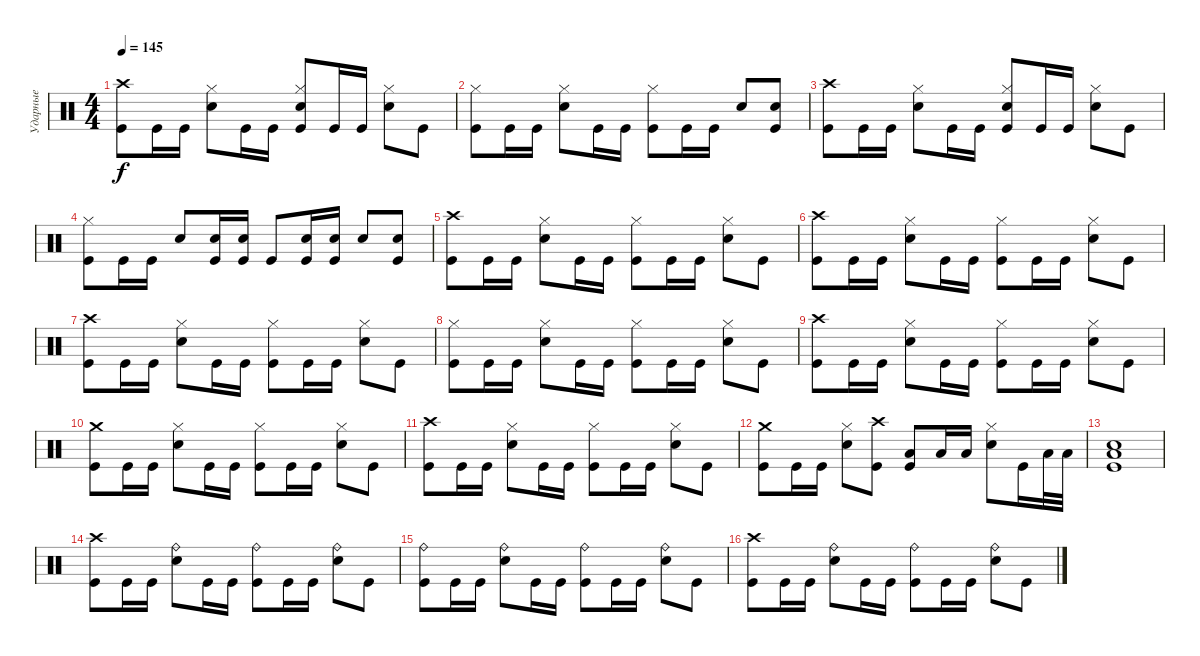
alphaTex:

\track ("Ударные" "Ударные") {instrument percussion}
\staff {score}
\articulation defaults
\ts (4 4)
\tempo 145
\clef neutral
\ks c
("Crash high (hit)" "Kick (hit)").8{dy f} "Kick (hit)".16 "Kick (hit)".16 ("Hi-Hat (closed)" "Electric Snare (hit)").8 "Kick (hit)".16 "Kick (hit)".16 ("Hi-Hat (closed)" "Electric Snare (hit)" "Kick (hit)").8 "Kick (hit)".16 "Kick (hit)".16 ("Hi-Hat (closed)" "Electric Snare (hit)").8 "Kick (hit)".8 |
("Hi-Hat (closed)" "Kick (hit)").8 "Kick (hit)".16 "Kick (hit)".16 ("Hi-Hat (closed)" "Electric Snare (hit)").8 "Kick (hit)".16 "Kick (hit)".16 ("Hi-Hat (closed)" "Kick (hit)").8 "Kick (hit)".16 "Kick (hit)".16 "Electric Snare (hit)".8 ("Electric Snare (hit)" "Kick (hit)").8 |
("Crash high (hit)" "Kick (hit)").8 "Kick (hit)".16 "Kick (hit)".16 ("Hi-Hat (closed)" "Electric Snare (hit)").8 "Kick (hit)".16 "Kick (hit)".16 ("Hi-Hat (closed)" "Electric Snare (hit)" "Kick (hit)").8 "Kick (hit)".16 "Kick (hit)".16 ("Hi-Hat (closed)" "Electric Snare (hit)").8 "Kick (hit)".8 |
("Hi-Hat (closed)" "Kick (hit)").8 "Kick (hit)".16 "Kick (hit)".16 "Electric Snare (hit)".8 ("Electric Snare (hit)" "Kick (hit)").16 ("Electric Snare (hit)" "Kick (hit)").16 "Kick (hit)".8 ("Electric Snare (hit)" "Kick (hit)").16 ("Electric Snare (hit)" "Kick (hit)").16 "Electric Snare (hit)".8 ("Electric Snare (hit)" "Kick (hit)").8 |
("Crash high (hit)" "Kick (hit)").8 "Kick (hit)".16 "Kick (hit)".16 ("Hi-Hat (closed)" "Electric Snare (hit)").8 "Kick (hit)".16 "Kick (hit)".16 ("Hi-Hat (closed)" "Kick (hit)").8 "Kick (hit)".16 "Kick (hit)".16 ("Hi-Hat (closed)" "Electric Snare (hit)").8 "Kick (hit)".8 |
("Crash high (hit)" "Kick (hit)").8 "Kick (hit)".16 "Kick (hit)".16 ("Hi-Hat (closed)" "Electric Snare (hit)").8 "Kick (hit)".16 "Kick (hit)".16 ("Hi-Hat (closed)" "Kick (hit)").8 "Kick (hit)".16 "Kick (hit)".16 ("Hi-Hat (closed)" "Electric Snare (hit)").8 "Kick (hit)".8 |
("Crash high (hit)" "Kick (hit)").8 "Kick (hit)".16 "Kick (hit)".16 ("Hi-Hat (closed)" "Electric Snare (hit)").8 "Kick (hit)".16 "Kick (hit)".16 ("Hi-Hat (closed)" "Kick (hit)").8 "Kick (hit)".16 "Kick (hit)".16 ("Hi-Hat (closed)" "Electric Snare (hit)").8 "Kick (hit)".8 |
("Hi-Hat (closed)" "Kick (hit)").8 "Kick (hit)".16 "Kick (hit)".16 ("Hi-Hat (closed)" "Electric Snare (hit)").8 "Kick (hit)".16 "Kick (hit)".16 ("Hi-Hat (closed)" "Kick (hit)").8 "Kick (hit)".16 "Kick (hit)".16 ("Hi-Hat (closed)" "Electric Snare (hit)").8 "Kick (hit)".8 |
("Crash high (hit)" "Kick (hit)").8 "Kick (hit)".16 "Kick (hit)".16 ("Hi-Hat (closed)" "Electric Snare (hit)").8 "Kick (hit)".16 "Kick (hit)".16 ("Hi-Hat (closed)" "Kick (hit)").8 "Kick (hit)".16 "Kick (hit)".16 ("Hi-Hat (closed)" "Electric Snare (hit)").8 "Kick (hit)".8 |
("Crash medium (hit)" "Kick (hit)").8 "Kick (hit)".16 "Kick (hit)".16 ("Hi-Hat (closed)" "Electric Snare (hit)").8 "Kick (hit)".16 "Kick (hit)".16 ("Hi-Hat (closed)" "Kick (hit)").8 "Kick (hit)".16 "Kick (hit)".16 ("Hi-Hat (closed)" "Electric Snare (hit)").8 "Kick (hit)".8 |
("Crash high (hit)" "Kick (hit)").8 "Kick (hit)".16 "Kick (hit)".16 ("Hi-Hat (closed)" "Electric Snare (hit)").8 "Kick (hit)".16 "Kick (hit)".16 ("Hi-Hat (closed)" "Kick (hit)").8 "Kick (hit)".16 "Kick (hit)".16 ("Hi-Hat (closed)" "Electric Snare (hit)").8 "Kick (hit)".8 |
("Crash medium (hit)" "Kick (hit)").8 "Kick (hit)".16 "Kick (hit)".16 ("Hi-Hat (closed)" "Electric Snare (hit)").8 ("Crash high (hit)" "Kick (hit)").8 ("Low Tom (hit)" "Kick (hit)").8 "Low Tom (hit)".16 "Low Tom (hit)".16 ("Hi-Hat (closed)" "Electric Snare (hit)").8 "Kick (hit)".16 "Low Tom (hit)".32 "Low Tom (hit)".32 |
("Electric Snare (hit)" "Low Tom (hit)" "Kick (hit)").1 |
("Crash high (hit)" "Kick (hit)").8 "Kick (hit)".16 "Kick (hit)".16 ("Ride (bell)" "Electric Snare (hit)").8 "Kick (hit)".16 "Kick (hit)".16 ("Ride (bell)" "Kick (hit)").8 "Kick (hit)".16 "Kick (hit)".16 ("Ride (bell)" "Electric Snare (hit)").8 "Kick (hit)".8 |
("Ride (bell)" "Kick (hit)").8 "Kick (hit)".16 "Kick (hit)".16 ("Ride (bell)" "Electric Snare (hit)").8 "Kick (hit)".16 "Kick (hit)".16 ("Ride (bell)" "Kick (hit)").8 "Kick (hit)".16 "Kick (hit)".16 ("Ride (bell)" "Electric Snare (hit)").8 "Kick (hit)".8 |
("Crash high (hit)" "Kick (hit)").8 "Kick (hit)".16 "Kick (hit)".16 ("Ride (bell)" "Electric Snare (hit)").8 "Kick (hit)".16 "Kick (hit)".16 ("Ride (bell)" "Kick (hit)").8 "Kick (hit)".16 "Kick (hit)".16 ("Ride (bell)" "Electric Snare (hit)").8 "Kick (hit)".8
